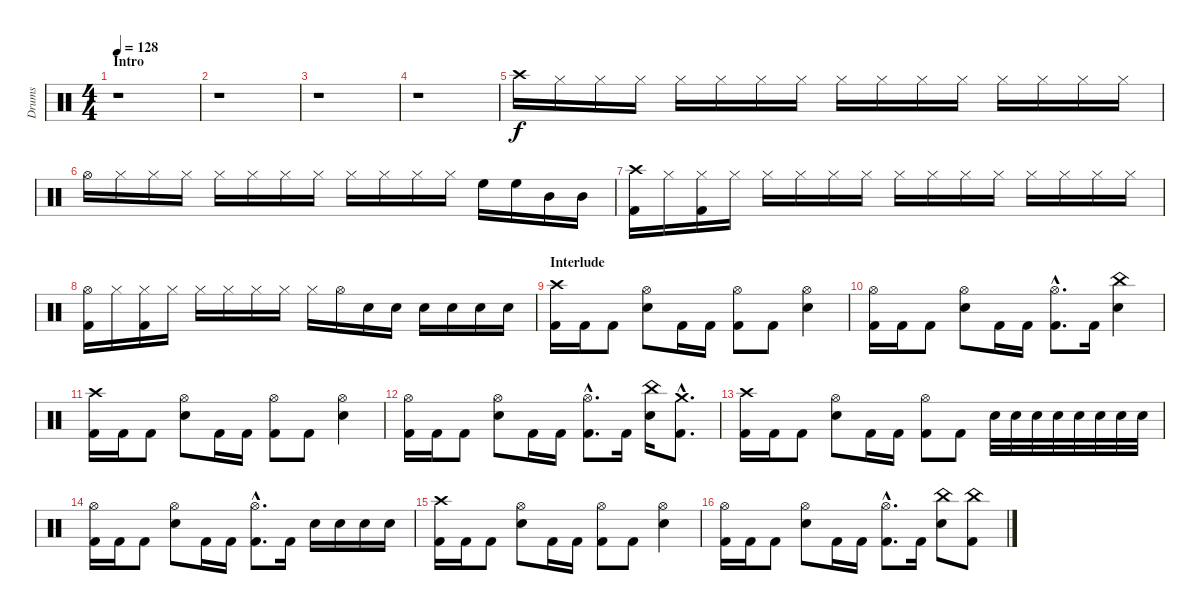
\track ("Drums" "Drums") {instrument percussion}
\staff {score}
\articulation defaults
\ts (4 4)
\section ("" "Intro")
\tempo 128
\clef neutral
\ks c
r.1{dy f} |
r.1 |
r.1 |
r.1 |
"Crash high (hit)".16 "Hi-Hat (closed)".16 "Hi-Hat (closed)".16 "Hi-Hat (closed)".16 "Hi-Hat (closed)".16 "Hi-Hat (closed)".16 "Hi-Hat (closed)".16 "Hi-Hat (closed)".16 "Hi-Hat (closed)".16 "Hi-Hat (closed)".16 "Hi-Hat (closed)".16 "Hi-Hat (closed)".16 "Hi-Hat (closed)".16 "Hi-Hat (closed)".16 "Hi-Hat (closed)".16 "Hi-Hat (closed)".16 |
"Hi-Hat (open)".16 "Hi-Hat (closed)".16 "Hi-Hat (closed)".16 "Hi-Hat (closed)".16 "Hi-Hat (closed)".16 "Hi-Hat (closed)".16 "Hi-Hat (closed)".16 "Hi-Hat (closed)".16 "Hi-Hat (closed)".16 "Hi-Hat (closed)".16 "Hi-Hat (closed)".16 "Hi-Hat (closed)".16 "High Floor Tom (hit)".16 "High Floor Tom (hit)".16 "Mid Tom (hit)".16 "Mid Tom (hit)".16 |
("Crash high (hit)" "Kick (hit) 2").16 "Hi-Hat (closed)".16 ("Hi-Hat (closed)" "Kick (hit) 2").16 "Hi-Hat (closed)".16 "Hi-Hat (closed)".16 "Hi-Hat (closed)".16 "Hi-Hat (closed)".16 "Hi-Hat (closed)".16 "Hi-Hat (closed)".16 "Hi-Hat (closed)".16 "Hi-Hat (closed)".16 "Hi-Hat (closed)".16 "Hi-Hat (closed)".16 "Hi-Hat (closed)".16 "Hi-Hat (closed)".16 "Hi-Hat (closed)".16 |
("Hi-Hat (open)" "Kick (hit) 2").16 "Hi-Hat (closed)".16 ("Hi-Hat (closed)" "Kick (hit) 2").16 "Hi-Hat (closed)".16 "Hi-Hat (closed)".16 "Hi-Hat (closed)".16 "Hi-Hat (closed)".16 "Hi-Hat (closed)".16 "Hi-Hat (closed)".16 "Hi-Hat (open)".16 "Snare (hit) 2".16 "Snare (hit) 2".16 "Snare (hit) 2".16 "Snare (hit) 2".16 "Snare (hit) 2".16 "Snare (hit) 2".16 |
\section ("" "Interlude")
("Crash high (hit)" "Kick (hit) 2").16 "Kick (hit) 2".16 "Kick (hit) 2".8 ("Hi-Hat (open)" "Snare (hit) 2").8 "Kick (hit) 2".16 "Kick (hit) 2".16 ("Hi-Hat (open)" "Kick (hit) 2").8 "Kick (hit) 2".8 ("Hi-Hat (open)" "Snare (hit) 2").4 |
("Hi-Hat (open)" "Kick (hit) 2").16 "Kick (hit) 2".16 "Kick (hit) 2".8 ("Hi-Hat (open)" "Snare (hit) 2").8 "Kick (hit) 2".16 "Kick (hit) 2".16 ("Hi-Hat (open)"{hac} "Kick (hit) 2"{hac}).8{d} "Kick (hit) 2".16 ("China (hit)" "Snare (hit) 2").4 |
("Crash high (hit)" "Kick (hit) 2").16 "Kick (hit) 2".16 "Kick (hit) 2".8 ("Hi-Hat (open)" "Snare (hit) 2").8 "Kick (hit) 2".16 "Kick (hit) 2".16 ("Hi-Hat (open)" "Kick (hit) 2").8 "Kick (hit) 2".8 ("Hi-Hat (open)" "Snare (hit) 2").4 |
("Hi-Hat (open)" "Kick (hit) 2").16 "Kick (hit) 2".16 "Kick (hit) 2".8 ("Hi-Hat (open)" "Snare (hit) 2").8 "Kick (hit) 2".16 "Kick (hit) 2".16 ("Hi-Hat (open)"{hac} "Kick (hit) 2"{hac}).8{d} "Kick (hit) 2".16 ("China (hit)" "Snare (hit) 2").16 ("Crash medium (hit)"{hac} "Kick (hit) 2"{hac}).8{d} |
("Crash high (hit)" "Kick (hit) 2").16 "Kick (hit) 2".16 "Kick (hit) 2".8 ("Hi-Hat (open)" "Snare (hit) 2").8 "Kick (hit) 2".16 "Kick (hit) 2".16 ("Hi-Hat (open)" "Kick (hit) 2").8 "Kick (hit) 2".8 "Snare (hit) 2".32 "Snare (hit) 2".32 "Snare (hit) 2".32 "Snare (hit) 2".32 "Snare (hit) 2".32 "Snare (hit) 2".32 "Snare (hit) 2".32 "Snare (hit) 2".32 |
("Hi-Hat (open)" "Kick (hit) 2").16 "Kick (hit) 2".16 "Kick (hit) 2".8 ("Hi-Hat (open)" "Snare (hit) 2").8 "Kick (hit) 2".16 "Kick (hit) 2".16 ("Hi-Hat (open)"{hac} "Kick (hit) 2"{hac}).8{d} "Kick (hit) 2".16 "Snare (hit) 2".16 "Snare (hit) 2".16 "Snare (hit) 2".16 "Snare (hit) 2".16 |
("Crash high (hit)" "Kick (hit) 2").16 "Kick (hit) 2".16 "Kick (hit) 2".8 ("Hi-Hat (open)" "Snare (hit) 2").8 "Kick (hit) 2".16 "Kick (hit) 2".16 ("Hi-Hat (open)" "Kick (hit) 2").8 "Kick (hit) 2".8 ("Hi-Hat (open)" "Snare (hit) 2").4 |
("Hi-Hat (open)" "Kick (hit) 2").16 "Kick (hit) 2".16 "Kick (hit) 2".8 ("Hi-Hat (open)" "Snare (hit) 2").8 "Kick (hit) 2".16 "Kick (hit) 2".16 ("Hi-Hat (open)"{hac} "Kick (hit) 2"{hac}).8{d} "Kick (hit) 2".16 ("China (hit)" "Snare (hit) 2").8 ("China (hit)" "Kick (hit) 2").8
